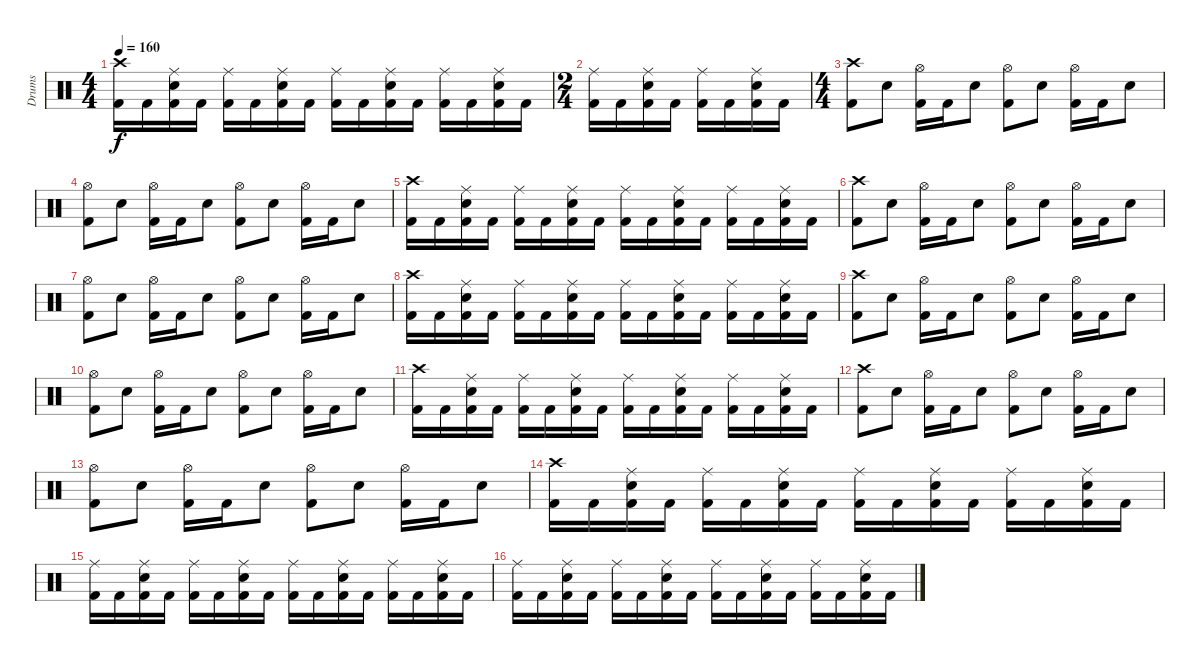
\track ("Drums" "Drums") {instrument percussion}
\staff {score}
\articulation defaults
\ts (4 4)
\tempo 160
\clef neutral
\ks c
("Crash high (hit)" "Kick (hit) 2").16{dy f} "Kick (hit) 2".16 ("Ride (middle)" "Electric Snare (hit)" "Kick (hit) 2").16 "Kick (hit) 2".16 ("Ride (middle)" "Kick (hit) 2").16 "Kick (hit) 2".16 ("Ride (middle)" "Electric Snare (hit)" "Kick (hit) 2").16 "Kick (hit) 2".16 ("Ride (middle)" "Kick (hit) 2").16 "Kick (hit) 2".16 ("Ride (middle)" "Electric Snare (hit)" "Kick (hit) 2").16 "Kick (hit) 2".16 ("Ride (middle)" "Kick (hit) 2").16 "Kick (hit) 2".16 ("Ride (middle)" "Electric Snare (hit)" "Kick (hit) 2").16 "Kick (hit) 2".16 |
\ts (2 4)
("Ride (middle)" "Kick (hit) 2").16 "Kick (hit) 2".16 ("Ride (middle)" "Electric Snare (hit)" "Kick (hit) 2").16 "Kick (hit) 2".16 ("Ride (middle)" "Kick (hit) 2").16 "Kick (hit) 2".16 ("Ride (middle)" "Electric Snare (hit)" "Kick (hit) 2").16 "Kick (hit) 2".16 |
\ts (4 4)
("Crash high (hit)" "Kick (hit) 2").8 "Electric Snare (hit)".8 ("Hi-Hat (open)" "Kick (hit) 2").16 "Kick (hit) 2".16 "Electric Snare (hit)".8 ("Hi-Hat (open)" "Kick (hit) 2").8 "Electric Snare (hit)".8 ("Hi-Hat (open)" "Kick (hit) 2").16 "Kick (hit) 2".16 "Electric Snare (hit)".8 |
("Hi-Hat (open)" "Kick (hit) 2").8 "Electric Snare (hit)".8 ("Hi-Hat (open)" "Kick (hit) 2").16 "Kick (hit) 2".16 "Electric Snare (hit)".8 ("Hi-Hat (open)" "Kick (hit) 2").8 "Electric Snare (hit)".8 ("Hi-Hat (open)" "Kick (hit) 2").16 "Kick (hit) 2".16 "Electric Snare (hit)".8 |
("Crash high (hit)" "Kick (hit) 2").16 "Kick (hit) 2".16 ("Ride (middle)" "Electric Snare (hit)" "Kick (hit) 2").16 "Kick (hit) 2".16 ("Ride (middle)" "Kick (hit) 2").16 "Kick (hit) 2".16 ("Ride (middle)" "Electric Snare (hit)" "Kick (hit) 2").16 "Kick (hit) 2".16 ("Ride (middle)" "Kick (hit) 2").16 "Kick (hit) 2".16 ("Ride (middle)" "Electric Snare (hit)" "Kick (hit) 2").16 "Kick (hit) 2".16 ("Ride (middle)" "Kick (hit) 2").16 "Kick (hit) 2".16 ("Ride (middle)" "Electric Snare (hit)" "Kick (hit) 2").16 "Kick (hit) 2".16 |
("Crash high (hit)" "Kick (hit) 2").8 "Electric Snare (hit)".8 ("Hi-Hat (open)" "Kick (hit) 2").16 "Kick (hit) 2".16 "Electric Snare (hit)".8 ("Hi-Hat (open)" "Kick (hit) 2").8 "Electric Snare (hit)".8 ("Hi-Hat (open)" "Kick (hit) 2").16 "Kick (hit) 2".16 "Electric Snare (hit)".8 |
("Hi-Hat (open)" "Kick (hit) 2").8 "Electric Snare (hit)".8 ("Hi-Hat (open)" "Kick (hit) 2").16 "Kick (hit) 2".16 "Electric Snare (hit)".8 ("Hi-Hat (open)" "Kick (hit) 2").8 "Electric Snare (hit)".8 ("Hi-Hat (open)" "Kick (hit) 2").16 "Kick (hit) 2".16 "Electric Snare (hit)".8 |
("Crash high (hit)" "Kick (hit) 2").16 "Kick (hit) 2".16 ("Ride (middle)" "Electric Snare (hit)" "Kick (hit) 2").16 "Kick (hit) 2".16 ("Ride (middle)" "Kick (hit) 2").16 "Kick (hit) 2".16 ("Ride (middle)" "Electric Snare (hit)" "Kick (hit) 2").16 "Kick (hit) 2".16 ("Ride (middle)" "Kick (hit) 2").16 "Kick (hit) 2".16 ("Ride (middle)" "Electric Snare (hit)" "Kick (hit) 2").16 "Kick (hit) 2".16 ("Ride (middle)" "Kick (hit) 2").16 "Kick (hit) 2".16 ("Ride (middle)" "Electric Snare (hit)" "Kick (hit) 2").16 "Kick (hit) 2".16 |
("Crash high (hit)" "Kick (hit) 2").8 "Electric Snare (hit)".8 ("Hi-Hat (open)" "Kick (hit) 2").16 "Kick (hit) 2".16 "Electric Snare (hit)".8 ("Hi-Hat (open)" "Kick (hit) 2").8 "Electric Snare (hit)".8 ("Hi-Hat (open)" "Kick (hit) 2").16 "Kick (hit) 2".16 "Electric Snare (hit)".8 |
("Hi-Hat (open)" "Kick (hit) 2").8 "Electric Snare (hit)".8 ("Hi-Hat (open)" "Kick (hit) 2").16 "Kick (hit) 2".16 "Electric Snare (hit)".8 ("Hi-Hat (open)" "Kick (hit) 2").8 "Electric Snare (hit)".8 ("Hi-Hat (open)" "Kick (hit) 2").16 "Kick (hit) 2".16 "Electric Snare (hit)".8 |
("Crash high (hit)" "Kick (hit) 2").16 "Kick (hit) 2".16 ("Ride (middle)" "Electric Snare (hit)" "Kick (hit) 2").16 "Kick (hit) 2".16 ("Ride (middle)" "Kick (hit) 2").16 "Kick (hit) 2".16 ("Ride (middle)" "Electric Snare (hit)" "Kick (hit) 2").16 "Kick (hit) 2".16 ("Ride (middle)" "Kick (hit) 2").16 "Kick (hit) 2".16 ("Ride (middle)" "Electric Snare (hit)" "Kick (hit) 2").16 "Kick (hit) 2".16 ("Ride (middle)" "Kick (hit) 2").16 "Kick (hit) 2".16 ("Ride (middle)" "Electric Snare (hit)" "Kick (hit) 2").16 "Kick (hit) 2".16 |
("Crash high (hit)" "Kick (hit) 2").8 "Electric Snare (hit)".8 ("Hi-Hat (open)" "Kick (hit) 2").16 "Kick (hit) 2".16 "Electric Snare (hit)".8 ("Hi-Hat (open)" "Kick (hit) 2").8 "Electric Snare (hit)".8 ("Hi-Hat (open)" "Kick (hit) 2").16 "Kick (hit) 2".16 "Electric Snare (hit)".8 |
("Hi-Hat (open)" "Kick (hit) 2").8 "Electric Snare (hit)".8 ("Hi-Hat (open)" "Kick (hit) 2").16 "Kick (hit) 2".16 "Electric Snare (hit)".8 ("Hi-Hat (open)" "Kick (hit) 2").8 "Electric Snare (hit)".8 ("Hi-Hat (open)" "Kick (hit) 2").16 "Kick (hit) 2".16 "Electric Snare (hit)".8 |
("Crash high (hit)" "Kick (hit) 2").16 "Kick (hit) 2".16 ("Ride (middle)" "Electric Snare (hit)" "Kick (hit) 2").16 "Kick (hit) 2".16 ("Ride (middle)" "Kick (hit) 2").16 "Kick (hit) 2".16 ("Ride (middle)" "Electric Snare (hit)" "Kick (hit) 2").16 "Kick (hit) 2".16 ("Ride (middle)" "Kick (hit) 2").16 "Kick (hit) 2".16 ("Ride (middle)" "Electric Snare (hit)" "Kick (hit) 2").16 "Kick (hit) 2".16 ("Ride (middle)" "Kick (hit) 2").16 "Kick (hit) 2".16 ("Ride (middle)" "Electric Snare (hit)" "Kick (hit) 2").16 "Kick (hit) 2".16 |
("Ride (middle)" "Kick (hit) 2").16 "Kick (hit) 2".16 ("Ride (middle)" "Electric Snare (hit)" "Kick (hit) 2").16 "Kick (hit) 2".16 ("Ride (middle)" "Kick (hit) 2").16 "Kick (hit) 2".16 ("Ride (middle)" "Electric Snare (hit)" "Kick (hit) 2").16 "Kick (hit) 2".16 ("Ride (middle)" "Kick (hit) 2").16 "Kick (hit) 2".16 ("Ride (middle)" "Electric Snare (hit)" "Kick (hit) 2").16 "Kick (hit) 2".16 ("Ride (middle)" "Kick (hit) 2").16 "Kick (hit) 2".16 ("Ride (middle)" "Electric Snare (hit)" "Kick (hit) 2").16 "Kick (hit) 2".16 |
("Ride (middle)" "Kick (hit) 2").16 "Kick (hit) 2".16 ("Ride (middle)" "Electric Snare (hit)" "Kick (hit) 2").16 "Kick (hit) 2".16 ("Ride (middle)" "Kick (hit) 2").16 "Kick (hit) 2".16 ("Ride (middle)" "Electric Snare (hit)" "Kick (hit) 2").16 "Kick (hit) 2".16 ("Ride (middle)" "Kick (hit) 2").16 "Kick (hit) 2".16 ("Ride (middle)" "Electric Snare (hit)" "Kick (hit) 2").16 "Kick (hit) 2".16 ("Ride (middle)" "Kick (hit) 2").16 "Kick (hit) 2".16 ("Ride (middle)" "Electric Snare (hit)" "Kick (hit) 2").16 "Kick (hit) 2".16
